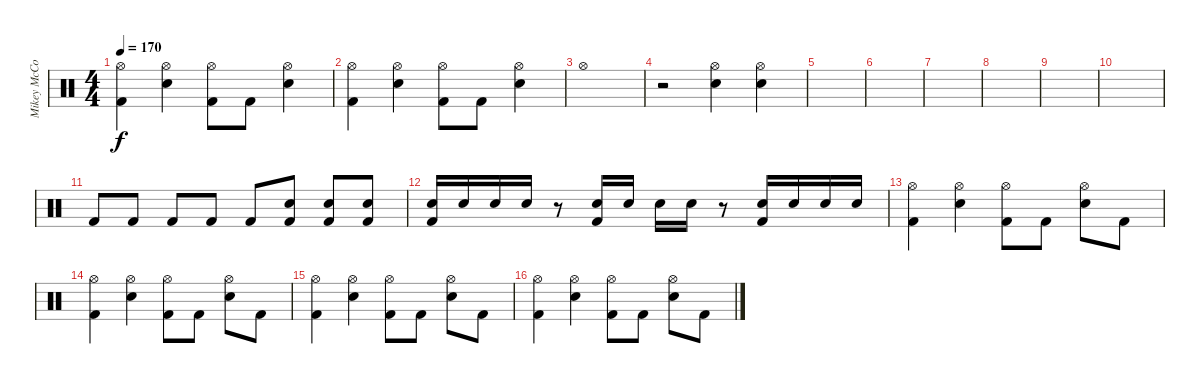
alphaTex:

\track ("Mikey McCormack" "Mikey McCo") {instrument percussion}
\staff {score}
\articulation defaults
\ts (4 4)
\tempo 170
\clef neutral
\ks c
("Hi-Hat (open)" "Kick (hit) 2").4{dy f} ("Hi-Hat (open)" "Electric Snare (hit)").4 ("Hi-Hat (open)" "Kick (hit) 2").8 "Kick (hit) 2".8 ("Hi-Hat (open)" "Electric Snare (hit)").4 |
("Hi-Hat (open)" "Kick (hit) 2").4 ("Hi-Hat (open)" "Electric Snare (hit)").4 ("Hi-Hat (open)" "Kick (hit) 2").8 "Kick (hit) 2".8 ("Hi-Hat (open)" "Electric Snare (hit)").4 |
"Hi-Hat (open)".1 |
r.2 ("Hi-Hat (open)" "Electric Snare (hit)").4 ("Hi-Hat (open)" "Electric Snare (hit)").4 |
|
|
|
|
|
|
"Kick (hit) 2".8 "Kick (hit) 2".8 "Kick (hit) 2".8 "Kick (hit) 2".8 "Kick (hit) 2".8 ("Electric Snare (hit)" "Kick (hit) 2").8 ("Electric Snare (hit)" "Kick (hit) 2").8 ("Electric Snare (hit)" "Kick (hit) 2").8 |
("Electric Snare (hit)" "Kick (hit) 2").16 "Electric Snare (hit)".16 "Electric Snare (hit)".16 "Electric Snare (hit)".16 r.8 ("Electric Snare (hit)" "Kick (hit) 2").16 "Electric Snare (hit)".16 "Electric Snare (hit)".16 "Electric Snare (hit)".16 r.8 ("Electric Snare (hit)" "Kick (hit) 2").16 "Electric Snare (hit)".16 "Electric Snare (hit)".16 "Electric Snare (hit)".16 |
("Hi-Hat (open)" "Kick (hit) 2").4 ("Hi-Hat (open)" "Electric Snare (hit)").4 ("Hi-Hat (open)" "Kick (hit) 2").8 "Kick (hit) 2".8 ("Hi-Hat (open)" "Electric Snare (hit)").8 "Kick (hit) 2".8 |
("Hi-Hat (open)" "Kick (hit) 2").4 ("Hi-Hat (open)" "Electric Snare (hit)").4 ("Hi-Hat (open)" "Kick (hit) 2").8 "Kick (hit) 2".8 ("Hi-Hat (open)" "Electric Snare (hit)").8 "Kick (hit) 2".8 |
("Hi-Hat (open)" "Kick (hit) 2").4 ("Hi-Hat (open)" "Electric Snare (hit)").4 ("Hi-Hat (open)" "Kick (hit) 2").8 "Kick (hit) 2".8 ("Hi-Hat (open)" "Electric Snare (hit)").8 "Kick (hit) 2".8 |
("Hi-Hat (open)" "Kick (hit) 2").4 ("Hi-Hat (open)" "Electric Snare (hit)").4 ("Hi-Hat (open)" "Kick (hit) 2").8 "Kick (hit) 2".8 ("Hi-Hat (open)" "Electric Snare (hit)").8 "Kick (hit) 2".8
